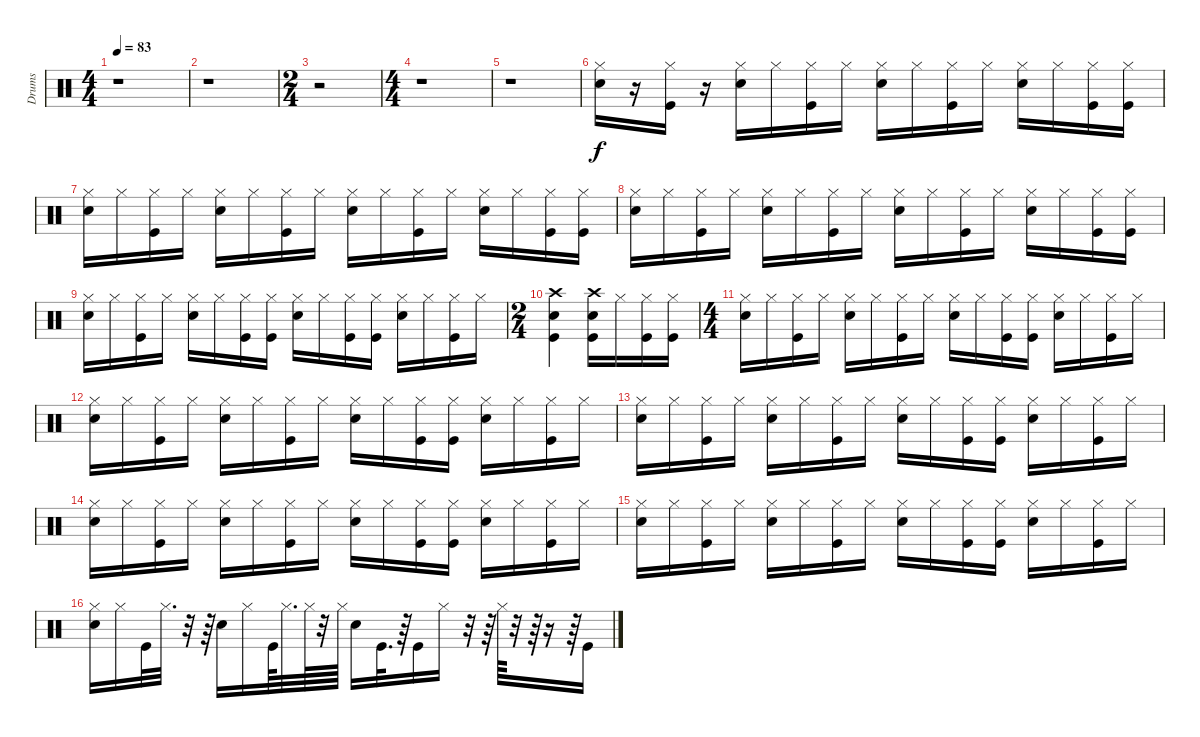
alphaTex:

\track ("Drums" "Drums") {instrument percussion}
\staff {score}
\articulation defaults
\ts (4 4)
\tempo 83
\clef neutral
\ks c
r.1{dy f} |
r.1 |
\ts (2 4)
r.2 |
\ts (4 4)
r.1 |
r.1 |
("Snare (hit) 2" "Hi-Hat (closed)").16 r.16 ("Kick (hit)" "Hi-Hat (closed)").16 r.16 ("Snare (hit) 2" "Hi-Hat (closed)").16 "Hi-Hat (closed)".16 ("Kick (hit)" "Hi-Hat (closed)").16 "Hi-Hat (closed)".16 ("Snare (hit) 2" "Hi-Hat (closed)").16 "Hi-Hat (closed)".16 ("Kick (hit)" "Hi-Hat (closed)").16 "Hi-Hat (closed)".16 ("Snare (hit) 2" "Hi-Hat (closed)").16 "Hi-Hat (closed)".16 ("Kick (hit)" "Hi-Hat (closed)").16 ("Kick (hit)" "Hi-Hat (closed)").16 |
("Snare (hit) 2" "Hi-Hat (closed)").16 "Hi-Hat (closed)".16 ("Kick (hit)" "Hi-Hat (closed)").16 "Hi-Hat (closed)".16 ("Snare (hit) 2" "Hi-Hat (closed)").16 "Hi-Hat (closed)".16 ("Kick (hit)" "Hi-Hat (closed)").16 "Hi-Hat (closed)".16 ("Snare (hit) 2" "Hi-Hat (closed)").16 "Hi-Hat (closed)".16 ("Kick (hit)" "Hi-Hat (closed)").16 "Hi-Hat (closed)".16 ("Snare (hit) 2" "Hi-Hat (closed)").16 "Hi-Hat (closed)".16 ("Kick (hit)" "Hi-Hat (closed)").16 ("Kick (hit)" "Hi-Hat (closed)").16 |
("Snare (hit) 2" "Hi-Hat (closed)").16 "Hi-Hat (closed)".16 ("Kick (hit)" "Hi-Hat (closed)").16 "Hi-Hat (closed)".16 ("Snare (hit) 2" "Hi-Hat (closed)").16 "Hi-Hat (closed)".16 ("Kick (hit)" "Hi-Hat (closed)").16 "Hi-Hat (closed)".16 ("Snare (hit) 2" "Hi-Hat (closed)").16 "Hi-Hat (closed)".16 ("Kick (hit)" "Hi-Hat (closed)").16 "Hi-Hat (closed)".16 ("Snare (hit) 2" "Hi-Hat (closed)").16 "Hi-Hat (closed)".16 ("Kick (hit)" "Hi-Hat (closed)").16 ("Kick (hit)" "Hi-Hat (closed)").16 |
("Snare (hit) 2" "Hi-Hat (closed)").16 "Hi-Hat (closed)".16 ("Kick (hit)" "Hi-Hat (closed)").16 "Hi-Hat (closed)".16 ("Snare (hit) 2" "Hi-Hat (closed)").16 "Hi-Hat (closed)".16 ("Kick (hit)" "Hi-Hat (closed)").16 ("Kick (hit)" "Hi-Hat (closed)").16 ("Snare (hit) 2" "Hi-Hat (closed)").16 "Hi-Hat (closed)".16 ("Kick (hit)" "Hi-Hat (closed)").16 ("Kick (hit)" "Hi-Hat (closed)").16 ("Snare (hit) 2" "Hi-Hat (closed)").16 "Hi-Hat (closed)".16 ("Kick (hit)" "Hi-Hat (closed)").16 "Hi-Hat (closed)".16 |
\ts (2 4)
("Kick (hit)" "Snare (hit) 2" "Crash high (hit)").4 ("Kick (hit)" "Snare (hit) 2" "Crash high (hit)").16 "Hi-Hat (closed)".16 ("Kick (hit)" "Hi-Hat (closed)").16 ("Kick (hit)" "Hi-Hat (closed)").16 |
\ts (4 4)
("Snare (hit) 2" "Hi-Hat (closed)").16 "Hi-Hat (closed)".16 ("Kick (hit)" "Hi-Hat (closed)").16 "Hi-Hat (closed)".16 ("Snare (hit) 2" "Hi-Hat (closed)").16 "Hi-Hat (closed)".16 ("Kick (hit)" "Hi-Hat (closed)").16 "Hi-Hat (closed)".16 ("Snare (hit) 2" "Hi-Hat (closed)").16 "Hi-Hat (closed)".16 ("Kick (hit)" "Hi-Hat (closed)").16 ("Kick (hit)" "Hi-Hat (closed)").16 ("Snare (hit) 2" "Hi-Hat (closed)").16 "Hi-Hat (closed)".16 ("Kick (hit)" "Hi-Hat (closed)").16 "Hi-Hat (closed)".16 |
("Snare (hit) 2" "Hi-Hat (closed)").16 "Hi-Hat (closed)".16 ("Kick (hit)" "Hi-Hat (closed)").16 "Hi-Hat (closed)".16 ("Snare (hit) 2" "Hi-Hat (closed)").16 "Hi-Hat (closed)".16 ("Kick (hit)" "Hi-Hat (closed)").16 "Hi-Hat (closed)".16 ("Snare (hit) 2" "Hi-Hat (closed)").16 "Hi-Hat (closed)".16 ("Kick (hit)" "Hi-Hat (closed)").16 ("Kick (hit)" "Hi-Hat (closed)").16 ("Snare (hit) 2" "Hi-Hat (closed)").16 "Hi-Hat (closed)".16 ("Kick (hit)" "Hi-Hat (closed)").16 "Hi-Hat (closed)".16 |
("Snare (hit) 2" "Hi-Hat (closed)").16 "Hi-Hat (closed)".16 ("Kick (hit)" "Hi-Hat (closed)").16 "Hi-Hat (closed)".16 ("Snare (hit) 2" "Hi-Hat (closed)").16 "Hi-Hat (closed)".16 ("Kick (hit)" "Hi-Hat (closed)").16 "Hi-Hat (closed)".16 ("Snare (hit) 2" "Hi-Hat (closed)").16 "Hi-Hat (closed)".16 ("Kick (hit)" "Hi-Hat (closed)").16 ("Kick (hit)" "Hi-Hat (closed)").16 ("Snare (hit) 2" "Hi-Hat (closed)").16 "Hi-Hat (closed)".16 ("Kick (hit)" "Hi-Hat (closed)").16 "Hi-Hat (closed)".16 |
("Snare (hit) 2" "Hi-Hat (closed)").16 "Hi-Hat (closed)".16 ("Kick (hit)" "Hi-Hat (closed)").16 "Hi-Hat (closed)".16 ("Snare (hit) 2" "Hi-Hat (closed)").16 "Hi-Hat (closed)".16 ("Kick (hit)" "Hi-Hat (closed)").16 "Hi-Hat (closed)".16 ("Snare (hit) 2" "Hi-Hat (closed)").16 "Hi-Hat (closed)".16 ("Kick (hit)" "Hi-Hat (closed)").16 ("Kick (hit)" "Hi-Hat (closed)").16 ("Snare (hit) 2" "Hi-Hat (closed)").16 "Hi-Hat (closed)".16 ("Kick (hit)" "Hi-Hat (closed)").16 "Hi-Hat (closed)".16 |
("Snare (hit) 2" "Hi-Hat (closed)").16 "Hi-Hat (closed)".16 ("Kick (hit)" "Hi-Hat (closed)").16 "Hi-Hat (closed)".16 ("Snare (hit) 2" "Hi-Hat (closed)").16 "Hi-Hat (closed)".16 ("Kick (hit)" "Hi-Hat (closed)").16 "Hi-Hat (closed)".16 ("Snare (hit) 2" "Hi-Hat (closed)").16 "Hi-Hat (closed)".16 ("Kick (hit)" "Hi-Hat (closed)").16 ("Kick (hit)" "Hi-Hat (closed)").16 ("Snare (hit) 2" "Hi-Hat (closed)").16 "Hi-Hat (closed)".16 ("Kick (hit)" "Hi-Hat (closed)").16 "Hi-Hat (closed)".16 |
("Snare (hit) 2" "Hi-Hat (closed)").16 "Hi-Hat (closed)".16 "Kick (hit)".32 "Hi-Hat (closed)".32{d} r.32 r.64 "Snare (hit) 2".16 "Hi-Hat (closed)".16 "Kick (hit)".64 "Hi-Hat (closed)".32{d} "Hi-Hat (closed)".64 r.32 "Hi-Hat (closed)".64 "Snare (hit) 2".16 "Kick (hit)".32{d} r.64 "Kick (hit)".16 "Hi-Hat (closed)".16 r.32 r.64 "Hi-Hat (closed)".64 r.32 r.64 r.16 r.64 "Kick (hit)".16
